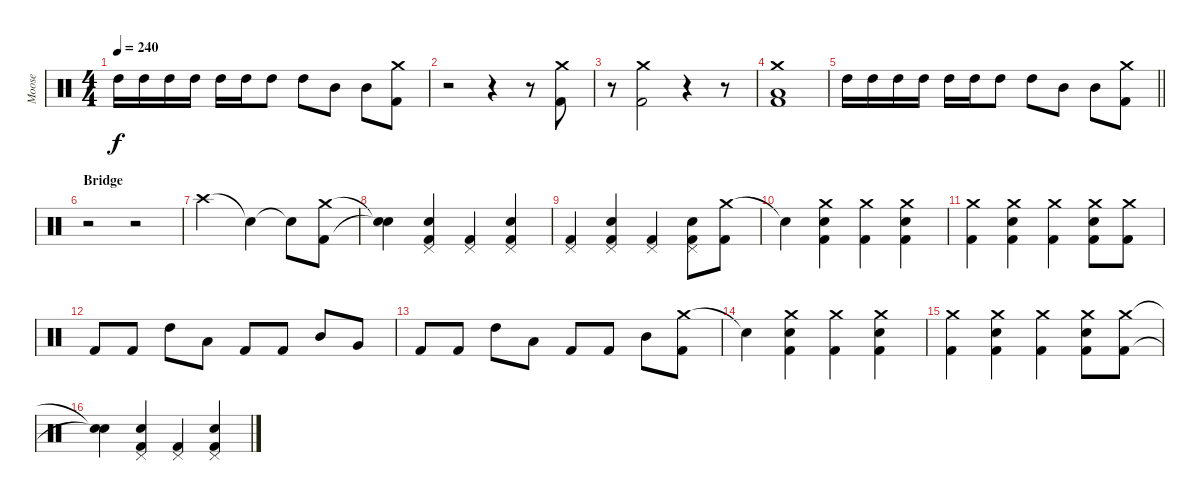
\track ("Moose" "Moose") {instrument percussion}
\staff {score}
\articulation defaults
\ts (4 4)
\tempo 240
\clef neutral
\ks c "High Tom (hit)".16{dy f} "High Tom (hit)".16 "High Tom (hit)".16 "High Tom (hit)".16 "High Tom (hit)".16 "High Tom (hit)".16 "High Tom (hit)".8 "High Tom (hit)".8 "Mid Tom (hit)".8 "Mid Tom (hit)".8
("Crash medium (hit)" "Kick (hit) 2").8 |
r.2 r.4 r.8 ("Crash medium (hit)" "Kick (hit) 2").8 |
r.8 ("Crash medium (hit)" "Kick (hit) 2").2 r.4 r.8 |
("Crash medium (hit)" "Low Floor Tom (hit)" "Kick (hit) 2").1 |
\barLineRight lightlight "High Tom (hit)".16 "High Tom (hit)".16 "High Tom (hit)".16 "High Tom (hit)".16 "High Tom (hit)".16 "High Tom (hit)".16 "High Tom (hit)".8 "High Tom (hit)".8 "Mid Tom (hit)".8 "Mid Tom (hit)".8
("Crash medium (hit)" "Kick (hit) 2").8 |
\section ("" "Bridge")
r.2{volume 13} r.2{volume 0} |
"Crash high (hit)".2{volume 13} "Snare (hit)"{t}.4 "Snare (hit)"{t}.8 ("Crash medium (hit)" "Kick (hit) 2").8 |
("Snare (hit)"{t} "Snare (hit)"{t}).4 ("Pedal Hi-Hat (hit)" "Snare (hit) 2" "Kick (hit) 2").4 ("Pedal Hi-Hat (hit)" "Kick (hit) 2").4 ("Pedal Hi-Hat (hit)" "Snare (hit) 2" "Kick (hit) 2").4 |
("Pedal Hi-Hat (hit)" "Kick (hit) 2").4 ("Pedal Hi-Hat (hit)" "Snare (hit) 2" "Kick (hit) 2").4 ("Pedal Hi-Hat (hit)" "Kick (hit) 2").4 ("Pedal Hi-Hat (hit)" "Snare (hit) 2" "Kick (hit) 2").8 ("Crash medium (hit)" "Kick (hit) 2").8 |
"Snare (hit)"{t}.4 ("Crash medium (hit)" "Snare (hit) 2" "Kick (hit) 2").4 ("Crash medium (hit)" "Kick (hit) 2").4 ("Crash medium (hit)" "Snare (hit) 2" "Kick (hit) 2").4 |
("Crash medium (hit)" "Kick (hit) 2").4 ("Crash medium (hit)" "Snare (hit) 2" "Kick (hit) 2").4 ("Crash medium (hit)" "Kick (hit) 2").4 ("Crash medium (hit)" "Snare (hit) 2" "Kick (hit) 2").8 ("Crash medium (hit)" "Kick (hit) 2").8 |
"Kick (hit) 2".8 "Kick (hit) 2".8 "High Tom (hit)".8 "Low Tom (hit)".8 "Kick (hit) 2".8 "Kick (hit) 2".8 "Mid Tom (hit)".8 "Very Low Tom (hit)".8 |
"Kick (hit) 2".8 "Kick (hit) 2".8 "High Tom (hit)".8 "Low Tom (hit)".8 "Kick (hit) 2".8 "Kick (hit) 2".8 "Mid Tom (hit)".8 ("Crash medium (hit)" "Kick (hit) 2").8 |
"Snare (hit)"{t}.4 ("Crash medium (hit)" "Snare (hit) 2" "Kick (hit) 2").4 ("Crash medium (hit)" "Kick (hit) 2").4 ("Crash medium (hit)" "Snare (hit) 2" "Kick (hit) 2").4 |
("Crash medium (hit)" "Kick (hit) 2").4 ("Crash medium (hit)" "Snare (hit) 2" "Kick (hit) 2").4 ("Crash medium (hit)" "Kick (hit) 2").4 ("Crash medium (hit)" "Snare (hit) 2" "Kick (hit) 2").8 ("Crash medium (hit)" "Kick (hit) 2").8 |
("Snare (hit)"{t} "Snare (hit)"{t}).4 ("Pedal Hi-Hat (hit)" "Snare (hit) 2" "Kick (hit) 2").4 ("Pedal Hi-Hat (hit)" "Kick (hit) 2").4 ("Pedal Hi-Hat (hit)" "Snare (hit) 2" "Kick (hit) 2").4
